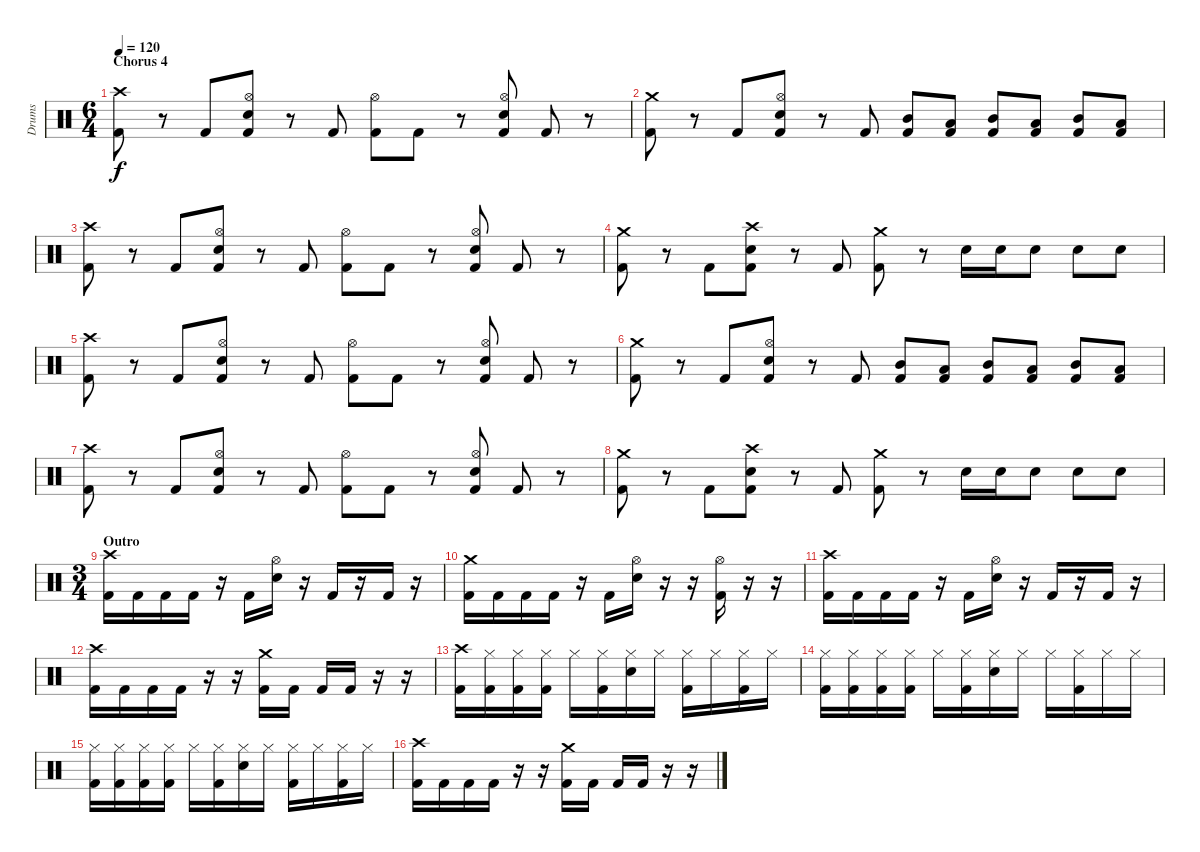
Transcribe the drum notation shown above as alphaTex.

\track ("Drums" "Drums") {instrument percussion}
\staff {score}
\articulation defaults
\ts (6 4)
\section ("" "Chorus 4")
\tempo 120
\clef neutral
\ks c
("Crash high (hit)" "Kick (hit) 2").8{dy f} r.8 "Kick (hit) 2".8 ("Hi-Hat (open)" "Snare (hit) 2" "Kick (hit) 2").8 r.8 "Kick (hit) 2".8 ("Hi-Hat (open)" "Kick (hit) 2").8 "Kick (hit) 2".8 r.8 ("Hi-Hat (open)" "Snare (hit) 2" "Kick (hit) 2").8 "Kick (hit) 2".8 r.8 |
("Crash medium (hit)" "Kick (hit) 2").8 r.8 "Kick (hit) 2".8 ("Hi-Hat (open)" "Snare (hit) 2" "Kick (hit) 2").8 r.8 "Kick (hit) 2".8 ("Mid Tom (hit)" "Kick (hit) 2").8 ("Low Tom (hit)" "Kick (hit) 2").8 ("Mid Tom (hit)" "Kick (hit) 2").8 ("Low Tom (hit)" "Kick (hit) 2").8 ("Mid Tom (hit)" "Kick (hit) 2").8 ("Low Tom (hit)" "Kick (hit) 2").8 |
("Crash high (hit)" "Kick (hit) 2").8 r.8 "Kick (hit) 2".8 ("Hi-Hat (open)" "Snare (hit) 2" "Kick (hit) 2").8 r.8 "Kick (hit) 2".8 ("Hi-Hat (open)" "Kick (hit) 2").8 "Kick (hit) 2".8 r.8 ("Hi-Hat (open)" "Snare (hit) 2" "Kick (hit) 2").8 "Kick (hit) 2".8 r.8 |
("Crash medium (hit)" "Kick (hit) 2").8 r.8 "Kick (hit) 2".8 ("Crash high (hit)" "Snare (hit) 2" "Kick (hit) 2").8 r.8 "Kick (hit) 2".8 ("Crash medium (hit)" "Kick (hit) 2").8 r.8 "Snare (hit) 2".16 "Snare (hit) 2".16 "Snare (hit) 2".8 "Snare (hit) 2".8 "Snare (hit) 2".8 |
("Crash high (hit)" "Kick (hit) 2").8 r.8 "Kick (hit) 2".8 ("Hi-Hat (open)" "Snare (hit) 2" "Kick (hit) 2").8 r.8 "Kick (hit) 2".8 ("Hi-Hat (open)" "Kick (hit) 2").8 "Kick (hit) 2".8 r.8 ("Hi-Hat (open)" "Snare (hit) 2" "Kick (hit) 2").8 "Kick (hit) 2".8 r.8 |
("Crash medium (hit)" "Kick (hit) 2").8 r.8 "Kick (hit) 2".8 ("Hi-Hat (open)" "Snare (hit) 2" "Kick (hit) 2").8 r.8 "Kick (hit) 2".8 ("Mid Tom (hit)" "Kick (hit) 2").8 ("Low Tom (hit)" "Kick (hit) 2").8 ("Mid Tom (hit)" "Kick (hit) 2").8 ("Low Tom (hit)" "Kick (hit) 2").8 ("Mid Tom (hit)" "Kick (hit) 2").8 ("Low Tom (hit)" "Kick (hit) 2").8 |
("Crash high (hit)" "Kick (hit) 2").8 r.8 "Kick (hit) 2".8 ("Hi-Hat (open)" "Snare (hit) 2" "Kick (hit) 2").8 r.8 "Kick (hit) 2".8 ("Hi-Hat (open)" "Kick (hit) 2").8 "Kick (hit) 2".8 r.8 ("Hi-Hat (open)" "Snare (hit) 2" "Kick (hit) 2").8 "Kick (hit) 2".8 r.8 |
("Crash medium (hit)" "Kick (hit) 2").8 r.8 "Kick (hit) 2".8 ("Crash high (hit)" "Snare (hit) 2" "Kick (hit) 2").8 r.8 "Kick (hit) 2".8 ("Crash medium (hit)" "Kick (hit) 2").8 r.8 "Snare (hit) 2".16 "Snare (hit) 2".16 "Snare (hit) 2".8 "Snare (hit) 2".8 "Snare (hit) 2".8 |
\ts (3 4)
\section ("" "Outro")
("Crash high (hit)" "Kick (hit) 2").16 "Kick (hit) 2".16 "Kick (hit) 2".16 "Kick (hit) 2".16 r.16 "Kick (hit) 2".16 ("Hi-Hat (open)" "Electric Snare (hit)").16 r.16 "Kick (hit) 2".16 r.16 "Kick (hit) 2".16 r.16 |
("Crash medium (hit)" "Kick (hit) 2").16 "Kick (hit) 2".16 "Kick (hit) 2".16 "Kick (hit) 2".16 r.16 "Kick (hit) 2".16 ("Hi-Hat (open)" "Electric Snare (hit)").16 r.16 r.16 ("Hi-Hat (open)" "Kick (hit) 2").16 r.16 r.16 |
("Crash high (hit)" "Kick (hit) 2").16 "Kick (hit) 2".16 "Kick (hit) 2".16 "Kick (hit) 2".16 r.16 "Kick (hit) 2".16 ("Hi-Hat (open)" "Electric Snare (hit)").16 r.16 "Kick (hit) 2".16 r.16 "Kick (hit) 2".16 r.16 |
("Crash high (hit)" "Kick (hit) 2").16 "Kick (hit) 2".16 "Kick (hit) 2".16 "Kick (hit) 2".16 r.16 r.16 ("Crash medium (hit)" "Kick (hit) 2").16 "Kick (hit) 2".16 "Kick (hit) 2".16 "Kick (hit) 2".16 r.16 r.16 |
("Crash high (hit)" "Kick (hit) 2").16 ("Hi-Hat (closed)" "Kick (hit) 2").16 ("Hi-Hat (closed)" "Kick (hit) 2").16 ("Hi-Hat (closed)" "Kick (hit) 2").16 "Hi-Hat (closed)".16 ("Hi-Hat (closed)" "Kick (hit) 2").16 ("Hi-Hat (closed)" "Electric Snare (hit)").16 "Hi-Hat (closed)".16 ("Hi-Hat (closed)" "Kick (hit) 2").16 "Hi-Hat (closed)".16 ("Hi-Hat (closed)" "Kick (hit) 2").16 "Hi-Hat (closed)".16 |
("Hi-Hat (closed)" "Kick (hit) 2").16 ("Hi-Hat (closed)" "Kick (hit) 2").16 ("Hi-Hat (closed)" "Kick (hit) 2").16 ("Hi-Hat (closed)" "Kick (hit) 2").16 "Hi-Hat (closed)".16 ("Hi-Hat (closed)" "Kick (hit) 2").16 ("Hi-Hat (closed)" "Electric Snare (hit)").16 "Hi-Hat (closed)".16 "Hi-Hat (closed)".16 ("Hi-Hat (closed)" "Kick (hit) 2").16 "Hi-Hat (closed)".16 "Hi-Hat (closed)".16 |
("Hi-Hat (closed)" "Kick (hit) 2").16 ("Hi-Hat (closed)" "Kick (hit) 2").16 ("Hi-Hat (closed)" "Kick (hit) 2").16 ("Hi-Hat (closed)" "Kick (hit) 2").16 "Hi-Hat (closed)".16 ("Hi-Hat (closed)" "Kick (hit) 2").16 ("Hi-Hat (closed)" "Electric Snare (hit)").16 "Hi-Hat (closed)".16 ("Hi-Hat (closed)" "Kick (hit) 2").16 "Hi-Hat (closed)".16 ("Hi-Hat (closed)" "Kick (hit) 2").16 "Hi-Hat (closed)".16 |
("Crash high (hit)" "Kick (hit) 2").16 "Kick (hit) 2".16 "Kick (hit) 2".16 "Kick (hit) 2".16 r.16 r.16 ("Crash medium (hit)" "Kick (hit) 2").16 "Kick (hit) 2".16 "Kick (hit) 2".16 "Kick (hit) 2".16 r.16 r.16
